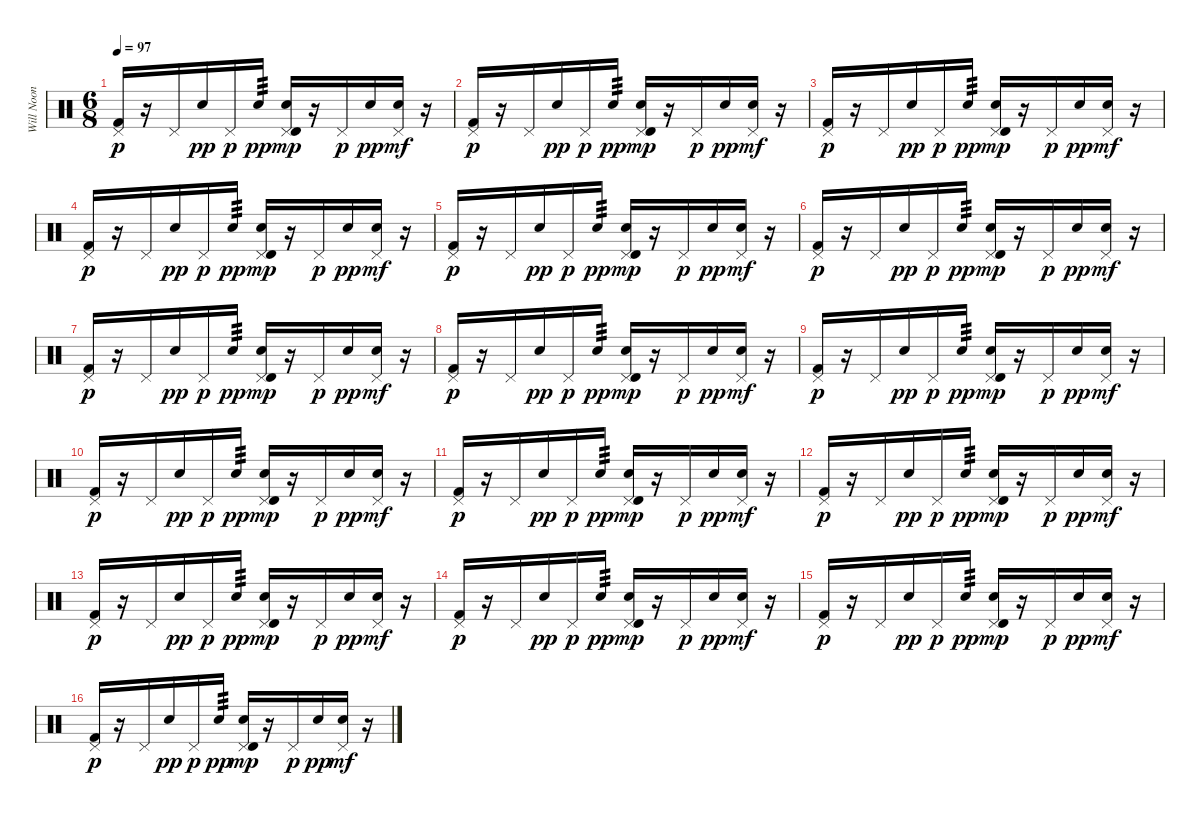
\track ("Will Noon" "Will Noon") {instrument percussion}
\staff {score}
\articulation defaults
\ts (6 8)
\tempo 97
\clef neutral
\ks c
("Pedal Hi-Hat (hit)" "Kick (hit) 2").16{dy p} r.16 "Pedal Hi-Hat (hit)".16 "Electric Snare (hit)".16{dy pp} "Pedal Hi-Hat (hit)".16{dy p} "Electric Snare (hit)".16{tp 3 dy pp} ("Pedal Hi-Hat (hit)" "Timbale high (hit)" "Electric Snare (hit)").16{dy mp} r.16 "Pedal Hi-Hat (hit)".16{dy p} "Snare (hit) 2".16{dy pp} ("Pedal Hi-Hat (hit)" "Electric Snare (hit)").16{dy mf} r.16 |
("Pedal Hi-Hat (hit)" "Kick (hit) 2").16{dy p} r.16 "Pedal Hi-Hat (hit)".16 "Electric Snare (hit)".16{dy pp} "Pedal Hi-Hat (hit)".16{dy p} "Electric Snare (hit)".16{tp 3 dy pp} ("Pedal Hi-Hat (hit)" "Timbale high (hit)" "Electric Snare (hit)").16{dy mp} r.16 "Pedal Hi-Hat (hit)".16{dy p} "Snare (hit) 2".16{dy pp} ("Pedal Hi-Hat (hit)" "Electric Snare (hit)").16{dy mf} r.16 |
("Pedal Hi-Hat (hit)" "Kick (hit) 2").16{dy p} r.16 "Pedal Hi-Hat (hit)".16 "Electric Snare (hit)".16{dy pp} "Pedal Hi-Hat (hit)".16{dy p} "Electric Snare (hit)".16{tp 3 dy pp} ("Pedal Hi-Hat (hit)" "Timbale high (hit)" "Electric Snare (hit)").16{dy mp} r.16 "Pedal Hi-Hat (hit)".16{dy p} "Snare (hit) 2".16{dy pp} ("Pedal Hi-Hat (hit)" "Electric Snare (hit)").16{dy mf} r.16 |
("Pedal Hi-Hat (hit)" "Kick (hit) 2").16{dy p} r.16 "Pedal Hi-Hat (hit)".16 "Electric Snare (hit)".16{dy pp} "Pedal Hi-Hat (hit)".16{dy p} "Electric Snare (hit)".16{tp 3 dy pp} ("Pedal Hi-Hat (hit)" "Timbale high (hit)" "Electric Snare (hit)").16{dy mp} r.16 "Pedal Hi-Hat (hit)".16{dy p} "Snare (hit) 2".16{dy pp} ("Pedal Hi-Hat (hit)" "Electric Snare (hit)").16{dy mf} r.16 |
("Pedal Hi-Hat (hit)" "Kick (hit) 2").16{dy p} r.16 "Pedal Hi-Hat (hit)".16 "Electric Snare (hit)".16{dy pp} "Pedal Hi-Hat (hit)".16{dy p} "Electric Snare (hit)".16{tp 3 dy pp} ("Pedal Hi-Hat (hit)" "Timbale high (hit)" "Electric Snare (hit)").16{dy mp} r.16 "Pedal Hi-Hat (hit)".16{dy p} "Snare (hit) 2".16{dy pp} ("Pedal Hi-Hat (hit)" "Electric Snare (hit)").16{dy mf} r.16 |
("Pedal Hi-Hat (hit)" "Kick (hit) 2").16{dy p} r.16 "Pedal Hi-Hat (hit)".16 "Electric Snare (hit)".16{dy pp} "Pedal Hi-Hat (hit)".16{dy p} "Electric Snare (hit)".16{tp 3 dy pp} ("Pedal Hi-Hat (hit)" "Timbale high (hit)" "Electric Snare (hit)").16{dy mp} r.16 "Pedal Hi-Hat (hit)".16{dy p} "Snare (hit) 2".16{dy pp} ("Pedal Hi-Hat (hit)" "Electric Snare (hit)").16{dy mf} r.16 |
("Pedal Hi-Hat (hit)" "Kick (hit) 2").16{dy p} r.16 "Pedal Hi-Hat (hit)".16 "Electric Snare (hit)".16{dy pp} "Pedal Hi-Hat (hit)".16{dy p} "Electric Snare (hit)".16{tp 3 dy pp} ("Pedal Hi-Hat (hit)" "Timbale high (hit)" "Electric Snare (hit)").16{dy mp} r.16 "Pedal Hi-Hat (hit)".16{dy p} "Snare (hit) 2".16{dy pp} ("Pedal Hi-Hat (hit)" "Electric Snare (hit)").16{dy mf} r.16 |
("Pedal Hi-Hat (hit)" "Kick (hit) 2").16{dy p} r.16 "Pedal Hi-Hat (hit)".16 "Electric Snare (hit)".16{dy pp} "Pedal Hi-Hat (hit)".16{dy p} "Electric Snare (hit)".16{tp 3 dy pp} ("Pedal Hi-Hat (hit)" "Timbale high (hit)" "Electric Snare (hit)").16{dy mp} r.16 "Pedal Hi-Hat (hit)".16{dy p} "Snare (hit) 2".16{dy pp} ("Pedal Hi-Hat (hit)" "Electric Snare (hit)").16{dy mf} r.16 |
("Pedal Hi-Hat (hit)" "Kick (hit) 2").16{dy p} r.16 "Pedal Hi-Hat (hit)".16 "Electric Snare (hit)".16{dy pp} "Pedal Hi-Hat (hit)".16{dy p} "Electric Snare (hit)".16{tp 3 dy pp} ("Pedal Hi-Hat (hit)" "Timbale high (hit)" "Electric Snare (hit)").16{dy mp} r.16 "Pedal Hi-Hat (hit)".16{dy p} "Snare (hit) 2".16{dy pp} ("Pedal Hi-Hat (hit)" "Electric Snare (hit)").16{dy mf} r.16 |
("Pedal Hi-Hat (hit)" "Kick (hit) 2").16{dy p} r.16 "Pedal Hi-Hat (hit)".16 "Electric Snare (hit)".16{dy pp} "Pedal Hi-Hat (hit)".16{dy p} "Electric Snare (hit)".16{tp 3 dy pp} ("Pedal Hi-Hat (hit)" "Timbale high (hit)" "Electric Snare (hit)").16{dy mp} r.16 "Pedal Hi-Hat (hit)".16{dy p} "Snare (hit) 2".16{dy pp} ("Pedal Hi-Hat (hit)" "Electric Snare (hit)").16{dy mf} r.16 |
("Pedal Hi-Hat (hit)" "Kick (hit) 2").16{dy p} r.16 "Pedal Hi-Hat (hit)".16 "Electric Snare (hit)".16{dy pp} "Pedal Hi-Hat (hit)".16{dy p} "Electric Snare (hit)".16{tp 3 dy pp} ("Pedal Hi-Hat (hit)" "Timbale high (hit)" "Electric Snare (hit)").16{dy mp} r.16 "Pedal Hi-Hat (hit)".16{dy p} "Snare (hit) 2".16{dy pp} ("Pedal Hi-Hat (hit)" "Electric Snare (hit)").16{dy mf} r.16 |
("Pedal Hi-Hat (hit)" "Kick (hit) 2").16{dy p} r.16 "Pedal Hi-Hat (hit)".16 "Electric Snare (hit)".16{dy pp} "Pedal Hi-Hat (hit)".16{dy p} "Electric Snare (hit)".16{tp 3 dy pp} ("Pedal Hi-Hat (hit)" "Timbale high (hit)" "Electric Snare (hit)").16{dy mp} r.16 "Pedal Hi-Hat (hit)".16{dy p} "Snare (hit) 2".16{dy pp} ("Pedal Hi-Hat (hit)" "Electric Snare (hit)").16{dy mf} r.16 |
("Pedal Hi-Hat (hit)" "Kick (hit) 2").16{dy p} r.16 "Pedal Hi-Hat (hit)".16 "Electric Snare (hit)".16{dy pp} "Pedal Hi-Hat (hit)".16{dy p} "Electric Snare (hit)".16{tp 3 dy pp} ("Pedal Hi-Hat (hit)" "Timbale high (hit)" "Electric Snare (hit)").16{dy mp} r.16 "Pedal Hi-Hat (hit)".16{dy p} "Snare (hit) 2".16{dy pp} ("Pedal Hi-Hat (hit)" "Electric Snare (hit)").16{dy mf} r.16 |
("Pedal Hi-Hat (hit)" "Kick (hit) 2").16{dy p} r.16 "Pedal Hi-Hat (hit)".16 "Electric Snare (hit)".16{dy pp} "Pedal Hi-Hat (hit)".16{dy p} "Electric Snare (hit)".16{tp 3 dy pp} ("Pedal Hi-Hat (hit)" "Timbale high (hit)" "Electric Snare (hit)").16{dy mp} r.16 "Pedal Hi-Hat (hit)".16{dy p} "Snare (hit) 2".16{dy pp} ("Pedal Hi-Hat (hit)" "Electric Snare (hit)").16{dy mf} r.16 |
("Pedal Hi-Hat (hit)" "Kick (hit) 2").16{dy p} r.16 "Pedal Hi-Hat (hit)".16 "Electric Snare (hit)".16{dy pp} "Pedal Hi-Hat (hit)".16{dy p} "Electric Snare (hit)".16{tp 3 dy pp} ("Pedal Hi-Hat (hit)" "Timbale high (hit)" "Electric Snare (hit)").16{dy mp} r.16 "Pedal Hi-Hat (hit)".16{dy p} "Snare (hit) 2".16{dy pp} ("Pedal Hi-Hat (hit)" "Electric Snare (hit)").16{dy mf} r.16 |
("Pedal Hi-Hat (hit)" "Kick (hit) 2").16{dy p} r.16 "Pedal Hi-Hat (hit)".16 "Electric Snare (hit)".16{dy pp} "Pedal Hi-Hat (hit)".16{dy p} "Electric Snare (hit)".16{tp 3 dy pp} ("Pedal Hi-Hat (hit)" "Timbale high (hit)" "Electric Snare (hit)").16{dy mp} r.16 "Pedal Hi-Hat (hit)".16{dy p} "Snare (hit) 2".16{dy pp} ("Pedal Hi-Hat (hit)" "Electric Snare (hit)").16{dy mf} r.16
